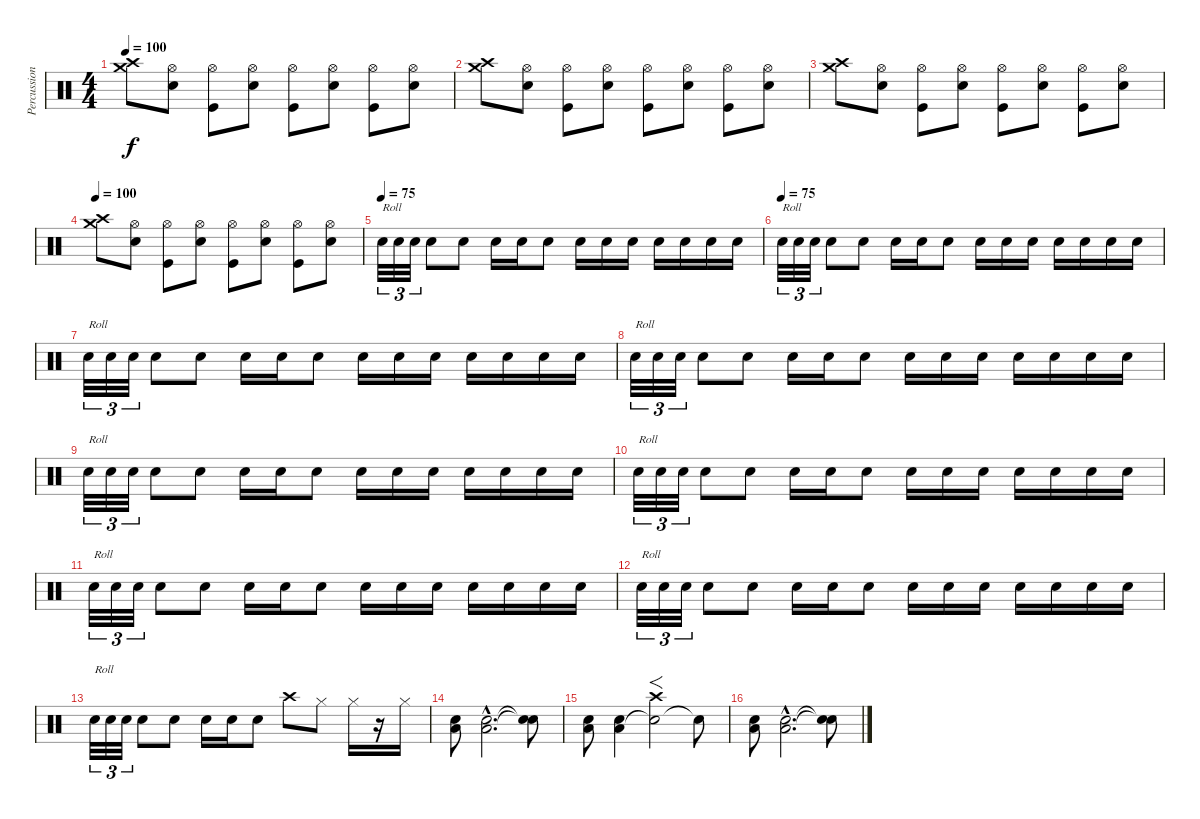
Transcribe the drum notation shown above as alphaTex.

\track ("Percussion" "Percussion") {instrument percussion}
\staff {score}
\articulation defaults
\ts (4 4)
\tempo 100
\clef neutral
\ks c
("Crash high (hit)" "Crash medium (hit)").8{dy f} ("Snare (hit) 2" "Hi-Hat (open)").8 ("Kick (hit)" "Hi-Hat (open)").8 ("Snare (hit) 2" "Hi-Hat (open)").8 ("Kick (hit)" "Hi-Hat (open)").8 ("Snare (hit) 2" "Hi-Hat (open)").8 ("Kick (hit)" "Hi-Hat (open)").8 ("Snare (hit) 2" "Hi-Hat (open)").8 |
("Crash high (hit)" "Crash medium (hit)").8 ("Snare (hit) 2" "Hi-Hat (open)").8 ("Kick (hit)" "Hi-Hat (open)").8 ("Snare (hit) 2" "Hi-Hat (open)").8 ("Kick (hit)" "Hi-Hat (open)").8 ("Snare (hit) 2" "Hi-Hat (open)").8 ("Kick (hit)" "Hi-Hat (open)").8 ("Snare (hit) 2" "Hi-Hat (open)").8 |
("Crash high (hit)" "Crash medium (hit)").8 ("Snare (hit) 2" "Hi-Hat (open)").8 ("Kick (hit)" "Hi-Hat (open)").8 ("Snare (hit) 2" "Hi-Hat (open)").8 ("Kick (hit)" "Hi-Hat (open)").8 ("Snare (hit) 2" "Hi-Hat (open)").8 ("Kick (hit)" "Hi-Hat (open)").8 ("Snare (hit) 2" "Hi-Hat (open)").8 |
\tempo 100
("Crash high (hit)" "Crash medium (hit)").8 ("Snare (hit) 2" "Hi-Hat (open)").8 ("Kick (hit)" "Hi-Hat (open)").8 ("Snare (hit) 2" "Hi-Hat (open)").8 ("Kick (hit)" "Hi-Hat (open)").8 ("Snare (hit) 2" "Hi-Hat (open)").8 ("Kick (hit)" "Hi-Hat (open)").8 ("Snare (hit) 2" "Hi-Hat (open)").8 |
\tempo (75)
"Snare (hit) 2".32{tu (3 2) txt "Roll"} "Snare (hit) 2".32{tu (3 2)} "Snare (hit) 2".32{tu (3 2)} "Snare (hit) 2".8 "Snare (hit) 2".8 "Snare (hit) 2".16 "Snare (hit) 2".16 "Snare (hit) 2".8 "Snare (hit) 2".16 "Snare (hit) 2".16 "Snare (hit) 2".16 "Snare (hit) 2".16 "Snare (hit) 2".16 "Snare (hit) 2".16 "Snare (hit) 2".16 |
\tempo (75)
"Snare (hit) 2".32{tu (3 2) txt "Roll"} "Snare (hit) 2".32{tu (3 2)} "Snare (hit) 2".32{tu (3 2)} "Snare (hit) 2".8 "Snare (hit) 2".8 "Snare (hit) 2".16 "Snare (hit) 2".16 "Snare (hit) 2".8 "Snare (hit) 2".16 "Snare (hit) 2".16 "Snare (hit) 2".16 "Snare (hit) 2".16 "Snare (hit) 2".16 "Snare (hit) 2".16 "Snare (hit) 2".16 |
"Snare (hit) 2".32{tu (3 2) txt "Roll"} "Snare (hit) 2".32{tu (3 2)} "Snare (hit) 2".32{tu (3 2)} "Snare (hit) 2".8 "Snare (hit) 2".8 "Snare (hit) 2".16 "Snare (hit) 2".16 "Snare (hit) 2".8 "Snare (hit) 2".16 "Snare (hit) 2".16 "Snare (hit) 2".16 "Snare (hit) 2".16 "Snare (hit) 2".16 "Snare (hit) 2".16 "Snare (hit) 2".16 |
"Snare (hit) 2".32{tu (3 2) txt "Roll"} "Snare (hit) 2".32{tu (3 2)} "Snare (hit) 2".32{tu (3 2)} "Snare (hit) 2".8 "Snare (hit) 2".8 "Snare (hit) 2".16 "Snare (hit) 2".16 "Snare (hit) 2".8 "Snare (hit) 2".16 "Snare (hit) 2".16 "Snare (hit) 2".16 "Snare (hit) 2".16 "Snare (hit) 2".16 "Snare (hit) 2".16 "Snare (hit) 2".16 |
"Snare (hit) 2".32{tu (3 2) txt "Roll"} "Snare (hit) 2".32{tu (3 2)} "Snare (hit) 2".32{tu (3 2)} "Snare (hit) 2".8 "Snare (hit) 2".8 "Snare (hit) 2".16 "Snare (hit) 2".16 "Snare (hit) 2".8 "Snare (hit) 2".16 "Snare (hit) 2".16 "Snare (hit) 2".16 "Snare (hit) 2".16 "Snare (hit) 2".16 "Snare (hit) 2".16 "Snare (hit) 2".16 |
"Snare (hit) 2".32{tu (3 2) txt "Roll"} "Snare (hit) 2".32{tu (3 2)} "Snare (hit) 2".32{tu (3 2)} "Snare (hit) 2".8 "Snare (hit) 2".8 "Snare (hit) 2".16 "Snare (hit) 2".16 "Snare (hit) 2".8 "Snare (hit) 2".16 "Snare (hit) 2".16 "Snare (hit) 2".16 "Snare (hit) 2".16 "Snare (hit) 2".16 "Snare (hit) 2".16 "Snare (hit) 2".16 |
"Snare (hit) 2".32{tu (3 2) txt "Roll"} "Snare (hit) 2".32{tu (3 2)} "Snare (hit) 2".32{tu (3 2)} "Snare (hit) 2".8 "Snare (hit) 2".8 "Snare (hit) 2".16 "Snare (hit) 2".16 "Snare (hit) 2".8 "Snare (hit) 2".16 "Snare (hit) 2".16 "Snare (hit) 2".16 "Snare (hit) 2".16 "Snare (hit) 2".16 "Snare (hit) 2".16 "Snare (hit) 2".16 |
"Snare (hit) 2".32{tu (3 2) txt "Roll"} "Snare (hit) 2".32{tu (3 2)} "Snare (hit) 2".32{tu (3 2)} "Snare (hit) 2".8 "Snare (hit) 2".8 "Snare (hit) 2".16 "Snare (hit) 2".16 "Snare (hit) 2".8 "Snare (hit) 2".16 "Snare (hit) 2".16 "Snare (hit) 2".16 "Snare (hit) 2".16 "Snare (hit) 2".16 "Snare (hit) 2".16 "Snare (hit) 2".16 |
"Snare (hit) 2".32{tu (3 2) txt "Roll"} "Snare (hit) 2".32{tu (3 2)} "Snare (hit) 2".32{tu (3 2)} "Snare (hit) 2".8 "Snare (hit) 2".8 "Snare (hit) 2".16 "Snare (hit) 2".16 "Snare (hit) 2".8 "Crash high (hit)".8 "Hi-Hat (closed)".8 "Hi-Hat (closed)".16 r.16 "Hi-Hat (closed)".16 |
("Low Tom (hit)" "Snare (hit) 2").8 ("Low Tom (hit)"{hac} "Snare (hit) 2"{hac}).2{d} ("Snare (hit)"{t} "Snare (hit)"{t}).8 |
("Low Tom (hit)" "Snare (hit) 2").8 ("Low Tom (hit)" "Snare (hit) 2").4 ("Snare (hit)"{t} "Crash high (hit)").2{f} "Snare (hit)"{t}.8 |
("Low Tom (hit)" "Snare (hit) 2").8 ("Low Tom (hit)"{hac} "Snare (hit) 2"{hac}).2{d} ("Snare (hit)"{t} "Snare (hit)"{t}).8
